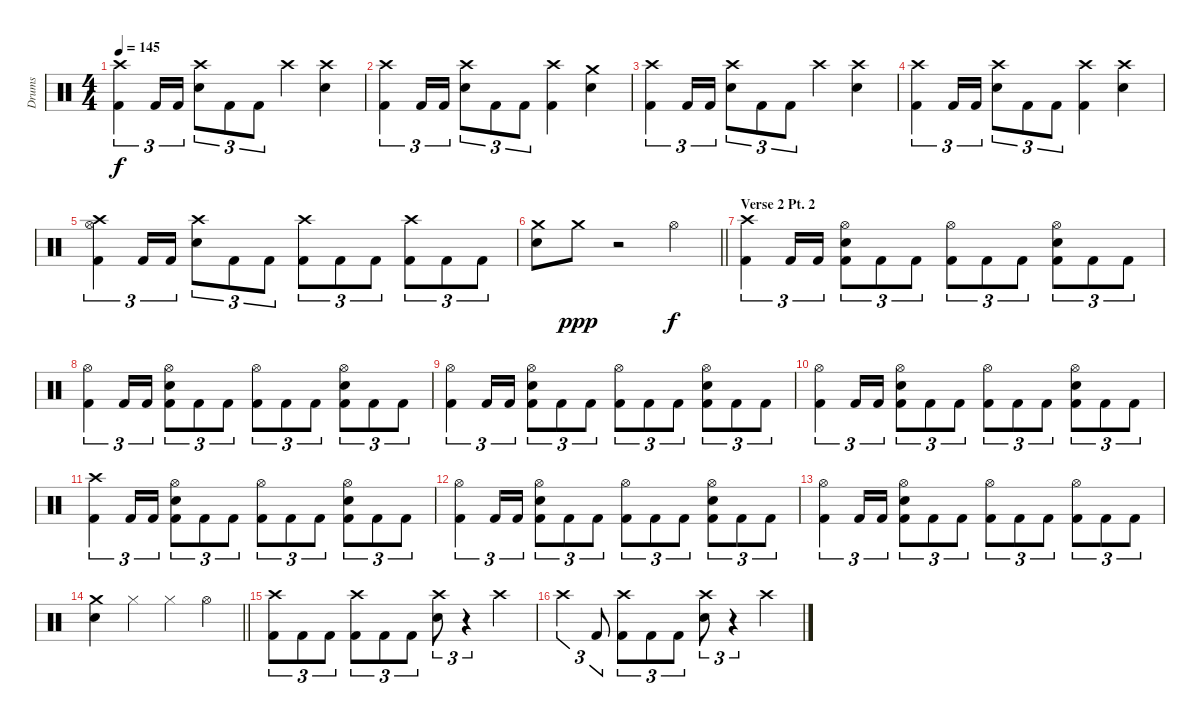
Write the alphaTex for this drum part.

\track ("Drums" "Drums") {instrument percussion}
\staff {score}
\articulation defaults
\ts (4 4)
\tempo 145
\clef neutral
\ks c
("Crash high (hit)" "Kick (hit) 2").4{tu (3 2) dy f} "Kick (hit) 2".16{tu (3 2)} "Kick (hit) 2".16{tu (3 2)} ("Crash high (hit)" "Electric Snare (hit)").8{tu (3 2)} "Kick (hit) 2".8{tu (3 2)} "Kick (hit) 2".8{tu (3 2)} "Crash high (hit)".4 ("Crash high (hit)" "Electric Snare (hit)").4 |
("Crash high (hit)" "Kick (hit) 2").4{tu (3 2)} "Kick (hit) 2".16{tu (3 2)} "Kick (hit) 2".16{tu (3 2)} ("Crash high (hit)" "Electric Snare (hit)").8{tu (3 2)} "Kick (hit) 2".8{tu (3 2)} "Kick (hit) 2".8{tu (3 2)} ("Crash high (hit)" "Kick (hit) 2").4 ("Crash medium (hit)" "Electric Snare (hit)").4 |
("Crash high (hit)" "Kick (hit) 2").4{tu (3 2)} "Kick (hit) 2".16{tu (3 2)} "Kick (hit) 2".16{tu (3 2)} ("Crash high (hit)" "Electric Snare (hit)").8{tu (3 2)} "Kick (hit) 2".8{tu (3 2)} "Kick (hit) 2".8{tu (3 2)} "Crash high (hit)".4 ("Crash high (hit)" "Electric Snare (hit)").4 |
("Crash high (hit)" "Kick (hit) 2").4{tu (3 2)} "Kick (hit) 2".16{tu (3 2)} "Kick (hit) 2".16{tu (3 2)} ("Crash high (hit)" "Electric Snare (hit)").8{tu (3 2)} "Kick (hit) 2".8{tu (3 2)} "Kick (hit) 2".8{tu (3 2)} ("Crash high (hit)" "Kick (hit) 2").4 ("Crash high (hit)" "Electric Snare (hit)").4 |
("Crash high (hit)" "Hi-Hat (open)" "Kick (hit) 2").4{tu (3 2)} "Kick (hit) 2".16{tu (3 2)} "Kick (hit) 2".16{tu (3 2)} ("Crash high (hit)" "Electric Snare (hit)").8{tu (3 2)} "Kick (hit) 2".8{tu (3 2)} "Kick (hit) 2".8{tu (3 2)} ("Crash high (hit)" "Kick (hit) 2").8{tu (3 2)} "Kick (hit) 2".8{tu (3 2)} "Kick (hit) 2".8{tu (3 2)} ("Crash high (hit)" "Kick (hit) 2").8{tu (3 2)} "Kick (hit) 2".8{tu (3 2)} "Kick (hit) 2".8{tu (3 2)} |
\barLineRight lightlight
("Crash medium (hit)" "Electric Snare (hit)").8 "Crash medium (hit)".8{dy ppp} r.2 "Hi-Hat (open)".4{dy f} |
\section ("" "Verse 2 Pt. 2")
("Crash high (hit)" "Kick (hit) 2").4{tu (3 2)} "Kick (hit) 2".16{tu (3 2)} "Kick (hit) 2".16{tu (3 2)} ("Hi-Hat (open)" "Electric Snare (hit)" "Kick (hit) 2").8{tu (3 2)} "Kick (hit) 2".8{tu (3 2)} "Kick (hit) 2".8{tu (3 2)} ("Hi-Hat (open)" "Kick (hit) 2").8{tu (3 2)} "Kick (hit) 2".8{tu (3 2)} "Kick (hit) 2".8{tu (3 2)} ("Hi-Hat (open)" "Electric Snare (hit)" "Kick (hit) 2").8{tu (3 2)} "Kick (hit) 2".8{tu (3 2)} "Kick (hit) 2".8{tu (3 2)} |
("Hi-Hat (open)" "Kick (hit) 2").4{tu (3 2)} "Kick (hit) 2".16{tu (3 2)} "Kick (hit) 2".16{tu (3 2)} ("Hi-Hat (open)" "Electric Snare (hit)" "Kick (hit) 2").8{tu (3 2)} "Kick (hit) 2".8{tu (3 2)} "Kick (hit) 2".8{tu (3 2)} ("Hi-Hat (open)" "Kick (hit) 2").8{tu (3 2)} "Kick (hit) 2".8{tu (3 2)} "Kick (hit) 2".8{tu (3 2)} ("Hi-Hat (open)" "Electric Snare (hit)" "Kick (hit) 2").8{tu (3 2)} "Kick (hit) 2".8{tu (3 2)} "Kick (hit) 2".8{tu (3 2)} |
("Hi-Hat (open)" "Kick (hit) 2").4{tu (3 2)} "Kick (hit) 2".16{tu (3 2)} "Kick (hit) 2".16{tu (3 2)} ("Hi-Hat (open)" "Electric Snare (hit)" "Kick (hit) 2").8{tu (3 2)} "Kick (hit) 2".8{tu (3 2)} "Kick (hit) 2".8{tu (3 2)} ("Hi-Hat (open)" "Kick (hit) 2").8{tu (3 2)} "Kick (hit) 2".8{tu (3 2)} "Kick (hit) 2".8{tu (3 2)} ("Hi-Hat (open)" "Electric Snare (hit)" "Kick (hit) 2").8{tu (3 2)} "Kick (hit) 2".8{tu (3 2)} "Kick (hit) 2".8{tu (3 2)} |
("Hi-Hat (open)" "Kick (hit) 2").4{tu (3 2)} "Kick (hit) 2".16{tu (3 2)} "Kick (hit) 2".16{tu (3 2)} ("Hi-Hat (open)" "Electric Snare (hit)" "Kick (hit) 2").8{tu (3 2)} "Kick (hit) 2".8{tu (3 2)} "Kick (hit) 2".8{tu (3 2)} ("Hi-Hat (open)" "Kick (hit) 2").8{tu (3 2)} "Kick (hit) 2".8{tu (3 2)} "Kick (hit) 2".8{tu (3 2)} ("Hi-Hat (open)" "Electric Snare (hit)" "Kick (hit) 2").8{tu (3 2)} "Kick (hit) 2".8{tu (3 2)} "Kick (hit) 2".8{tu (3 2)} |
("Crash high (hit)" "Kick (hit) 2").4{tu (3 2)} "Kick (hit) 2".16{tu (3 2)} "Kick (hit) 2".16{tu (3 2)} ("Hi-Hat (open)" "Electric Snare (hit)" "Kick (hit) 2").8{tu (3 2)} "Kick (hit) 2".8{tu (3 2)} "Kick (hit) 2".8{tu (3 2)} ("Hi-Hat (open)" "Kick (hit) 2").8{tu (3 2)} "Kick (hit) 2".8{tu (3 2)} "Kick (hit) 2".8{tu (3 2)} ("Hi-Hat (open)" "Electric Snare (hit)" "Kick (hit) 2").8{tu (3 2)} "Kick (hit) 2".8{tu (3 2)} "Kick (hit) 2".8{tu (3 2)} |
("Hi-Hat (open)" "Kick (hit) 2").4{tu (3 2)} "Kick (hit) 2".16{tu (3 2)} "Kick (hit) 2".16{tu (3 2)} ("Hi-Hat (open)" "Electric Snare (hit)" "Kick (hit) 2").8{tu (3 2)} "Kick (hit) 2".8{tu (3 2)} "Kick (hit) 2".8{tu (3 2)} ("Hi-Hat (open)" "Kick (hit) 2").8{tu (3 2)} "Kick (hit) 2".8{tu (3 2)} "Kick (hit) 2".8{tu (3 2)} ("Hi-Hat (open)" "Electric Snare (hit)" "Kick (hit) 2").8{tu (3 2)} "Kick (hit) 2".8{tu (3 2)} "Kick (hit) 2".8{tu (3 2)} |
("Hi-Hat (open)" "Kick (hit) 2").4{tu (3 2)} "Kick (hit) 2".16{tu (3 2)} "Kick (hit) 2".16{tu (3 2)} ("Hi-Hat (open)" "Electric Snare (hit)" "Kick (hit) 2").8{tu (3 2)} "Kick (hit) 2".8{tu (3 2)} "Kick (hit) 2".8{tu (3 2)} ("Hi-Hat (open)" "Kick (hit) 2").8{tu (3 2)} "Kick (hit) 2".8{tu (3 2)} "Kick (hit) 2".8{tu (3 2)} ("Hi-Hat (open)" "Kick (hit) 2").8{tu (3 2)} "Kick (hit) 2".8{tu (3 2)} "Kick (hit) 2".8{tu (3 2)} |
\barLineRight lightlight
("Crash medium (hit)" "Electric Snare (hit)").4 "Hi-Hat (closed)".4 "Hi-Hat (closed)".4 "Hi-Hat (open)".4 |
("Crash high (hit)" "Kick (hit) 2").8{tu (3 2)} "Kick (hit) 2".8{tu (3 2)} "Kick (hit) 2".8{tu (3 2)} ("Crash high (hit)" "Kick (hit) 2").8{tu (3 2)} "Kick (hit) 2".8{tu (3 2)} "Kick (hit) 2".8{tu (3 2)} ("Crash high (hit)" "Electric Snare (hit)").8{tu (3 2)} r.4{tu (3 2)} "Crash high (hit)".4 |
"Crash high (hit)".4{tu (3 2)} "Kick (hit) 2".8{tu (3 2)} ("Crash high (hit)" "Kick (hit) 2").8{tu (3 2)} "Kick (hit) 2".8{tu (3 2)} "Kick (hit) 2".8{tu (3 2)} ("Crash high (hit)" "Electric Snare (hit)").8{tu (3 2)} r.4{tu (3 2)} "Crash high (hit)".4
